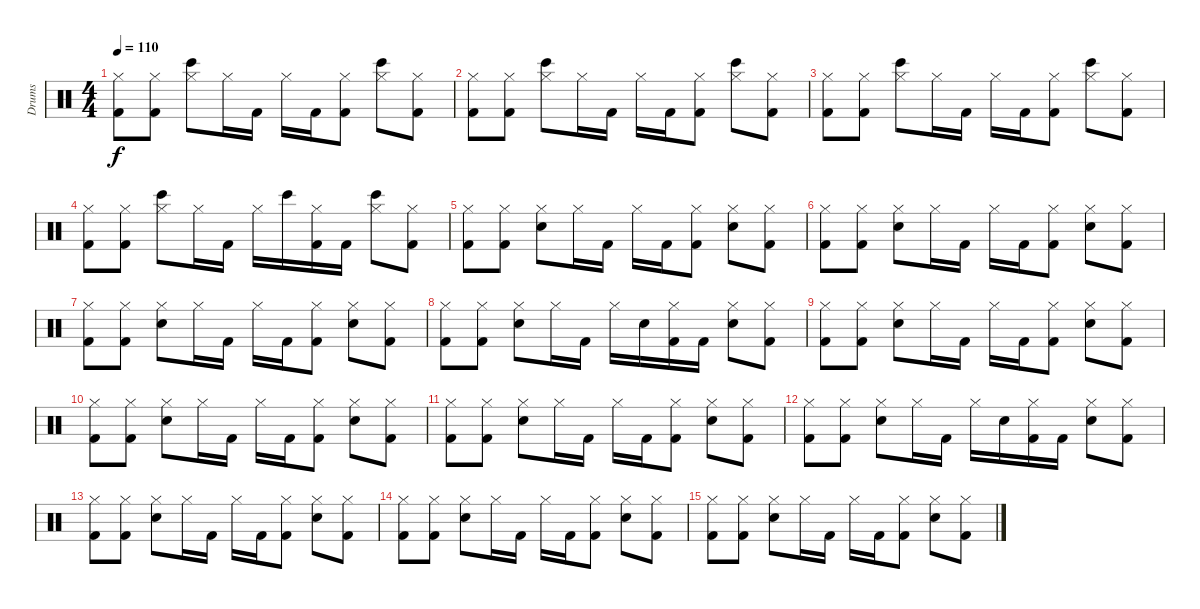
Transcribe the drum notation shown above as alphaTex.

\track ("Drums" "Drums") {instrument percussion}
\staff {score}
\articulation defaults
\ts (4 4)
\tempo 110
\clef neutral
\ks c
("Hi-Hat (closed)" "Kick (hit) 2").8{dy f} ("Hi-Hat (closed)" "Kick (hit) 2").8 ("Hi-Hat (closed)" "Bongo High (hit)").8 "Hi-Hat (closed)".16 "Kick (hit) 2".16 "Hi-Hat (closed)".16 "Kick (hit) 2".16 ("Hi-Hat (closed)" "Kick (hit) 2").8 ("Hi-Hat (closed)" "Bongo High (hit)").8 ("Hi-Hat (closed)" "Kick (hit) 2").8 |
("Hi-Hat (closed)" "Kick (hit) 2").8 ("Hi-Hat (closed)" "Kick (hit) 2").8 ("Hi-Hat (closed)" "Bongo High (hit)").8 "Hi-Hat (closed)".16 "Kick (hit) 2".16 "Hi-Hat (closed)".16 "Kick (hit) 2".16 ("Hi-Hat (closed)" "Kick (hit) 2").8 ("Hi-Hat (closed)" "Bongo High (hit)").8 ("Hi-Hat (closed)" "Kick (hit) 2").8 |
("Hi-Hat (closed)" "Kick (hit) 2").8 ("Hi-Hat (closed)" "Kick (hit) 2").8 ("Hi-Hat (closed)" "Bongo High (hit)").8 "Hi-Hat (closed)".16 "Kick (hit) 2".16 "Hi-Hat (closed)".16 "Kick (hit) 2".16 ("Hi-Hat (closed)" "Kick (hit) 2").8 ("Hi-Hat (closed)" "Bongo High (hit)").8 ("Hi-Hat (closed)" "Kick (hit) 2").8 |
("Hi-Hat (closed)" "Kick (hit) 2").8 ("Hi-Hat (closed)" "Kick (hit) 2").8 ("Hi-Hat (closed)" "Bongo High (hit)").8 "Hi-Hat (closed)".16 "Kick (hit) 2".16 "Hi-Hat (closed)".16 "Bongo High (hit)".16 ("Hi-Hat (closed)" "Kick (hit) 2").16 "Kick (hit) 2".16 ("Hi-Hat (closed)" "Bongo High (hit)").8 ("Hi-Hat (closed)" "Kick (hit) 2").8 |
("Hi-Hat (closed)" "Kick (hit) 2").8 ("Hi-Hat (closed)" "Kick (hit) 2").8 ("Hi-Hat (closed)" "Electric Snare (hit)").8 "Hi-Hat (closed)".16 "Kick (hit) 2".16 "Hi-Hat (closed)".16 "Kick (hit) 2".16 ("Hi-Hat (closed)" "Kick (hit) 2").8 ("Hi-Hat (closed)" "Electric Snare (hit)").8 ("Hi-Hat (closed)" "Kick (hit) 2").8 |
("Hi-Hat (closed)" "Kick (hit) 2").8 ("Hi-Hat (closed)" "Kick (hit) 2").8 ("Hi-Hat (closed)" "Electric Snare (hit)").8 "Hi-Hat (closed)".16 "Kick (hit) 2".16 "Hi-Hat (closed)".16 "Kick (hit) 2".16 ("Hi-Hat (closed)" "Kick (hit) 2").8 ("Hi-Hat (closed)" "Electric Snare (hit)").8 ("Hi-Hat (closed)" "Kick (hit) 2").8 |
("Hi-Hat (closed)" "Kick (hit) 2").8 ("Hi-Hat (closed)" "Kick (hit) 2").8 ("Hi-Hat (closed)" "Electric Snare (hit)").8 "Hi-Hat (closed)".16 "Kick (hit) 2".16 "Hi-Hat (closed)".16 "Kick (hit) 2".16 ("Hi-Hat (closed)" "Kick (hit) 2").8 ("Hi-Hat (closed)" "Electric Snare (hit)").8 ("Hi-Hat (closed)" "Kick (hit) 2").8 |
("Hi-Hat (closed)" "Kick (hit) 2").8 ("Hi-Hat (closed)" "Kick (hit) 2").8 ("Hi-Hat (closed)" "Electric Snare (hit)").8 "Hi-Hat (closed)".16 "Kick (hit) 2".16 "Hi-Hat (closed)".16 "Electric Snare (hit)".16 ("Hi-Hat (closed)" "Kick (hit) 2").16 "Kick (hit) 2".16 ("Hi-Hat (closed)" "Electric Snare (hit)").8 ("Hi-Hat (closed)" "Kick (hit) 2").8 |
("Hi-Hat (closed)" "Kick (hit) 2").8 ("Hi-Hat (closed)" "Kick (hit) 2").8 ("Hi-Hat (closed)" "Electric Snare (hit)").8 "Hi-Hat (closed)".16 "Kick (hit) 2".16 "Hi-Hat (closed)".16 "Kick (hit) 2".16 ("Hi-Hat (closed)" "Kick (hit) 2").8 ("Hi-Hat (closed)" "Electric Snare (hit)").8 ("Hi-Hat (closed)" "Kick (hit) 2").8 |
("Hi-Hat (closed)" "Kick (hit) 2").8 ("Hi-Hat (closed)" "Kick (hit) 2").8 ("Hi-Hat (closed)" "Electric Snare (hit)").8 "Hi-Hat (closed)".16 "Kick (hit) 2".16 "Hi-Hat (closed)".16 "Kick (hit) 2".16 ("Hi-Hat (closed)" "Kick (hit) 2").8 ("Hi-Hat (closed)" "Electric Snare (hit)").8 ("Hi-Hat (closed)" "Kick (hit) 2").8 |
("Hi-Hat (closed)" "Kick (hit) 2").8 ("Hi-Hat (closed)" "Kick (hit) 2").8 ("Hi-Hat (closed)" "Electric Snare (hit)").8 "Hi-Hat (closed)".16 "Kick (hit) 2".16 "Hi-Hat (closed)".16 "Kick (hit) 2".16 ("Hi-Hat (closed)" "Kick (hit) 2").8 ("Hi-Hat (closed)" "Electric Snare (hit)").8 ("Hi-Hat (closed)" "Kick (hit) 2").8 |
("Hi-Hat (closed)" "Kick (hit) 2").8 ("Hi-Hat (closed)" "Kick (hit) 2").8 ("Hi-Hat (closed)" "Electric Snare (hit)").8 "Hi-Hat (closed)".16 "Kick (hit) 2".16 "Hi-Hat (closed)".16 "Electric Snare (hit)".16 ("Hi-Hat (closed)" "Kick (hit) 2").16 "Kick (hit) 2".16 ("Hi-Hat (closed)" "Electric Snare (hit)").8 ("Hi-Hat (closed)" "Kick (hit) 2").8 |
("Hi-Hat (closed)" "Kick (hit) 2").8 ("Hi-Hat (closed)" "Kick (hit) 2").8 ("Hi-Hat (closed)" "Electric Snare (hit)").8 "Hi-Hat (closed)".16 "Kick (hit) 2".16 "Hi-Hat (closed)".16 "Kick (hit) 2".16 ("Hi-Hat (closed)" "Kick (hit) 2").8 ("Hi-Hat (closed)" "Electric Snare (hit)").8 ("Hi-Hat (closed)" "Kick (hit) 2").8 |
("Hi-Hat (closed)" "Kick (hit) 2").8 ("Hi-Hat (closed)" "Kick (hit) 2").8 ("Hi-Hat (closed)" "Electric Snare (hit)").8 "Hi-Hat (closed)".16 "Kick (hit) 2".16 "Hi-Hat (closed)".16 "Kick (hit) 2".16 ("Hi-Hat (closed)" "Kick (hit) 2").8 ("Hi-Hat (closed)" "Electric Snare (hit)").8 ("Hi-Hat (closed)" "Kick (hit) 2").8 |
("Hi-Hat (closed)" "Kick (hit) 2").8 ("Hi-Hat (closed)" "Kick (hit) 2").8 ("Hi-Hat (closed)" "Electric Snare (hit)").8 "Hi-Hat (closed)".16 "Kick (hit) 2".16 "Hi-Hat (closed)".16 "Kick (hit) 2".16 ("Hi-Hat (closed)" "Kick (hit) 2").8 ("Hi-Hat (closed)" "Electric Snare (hit)").8 ("Hi-Hat (closed)" "Kick (hit) 2").8
